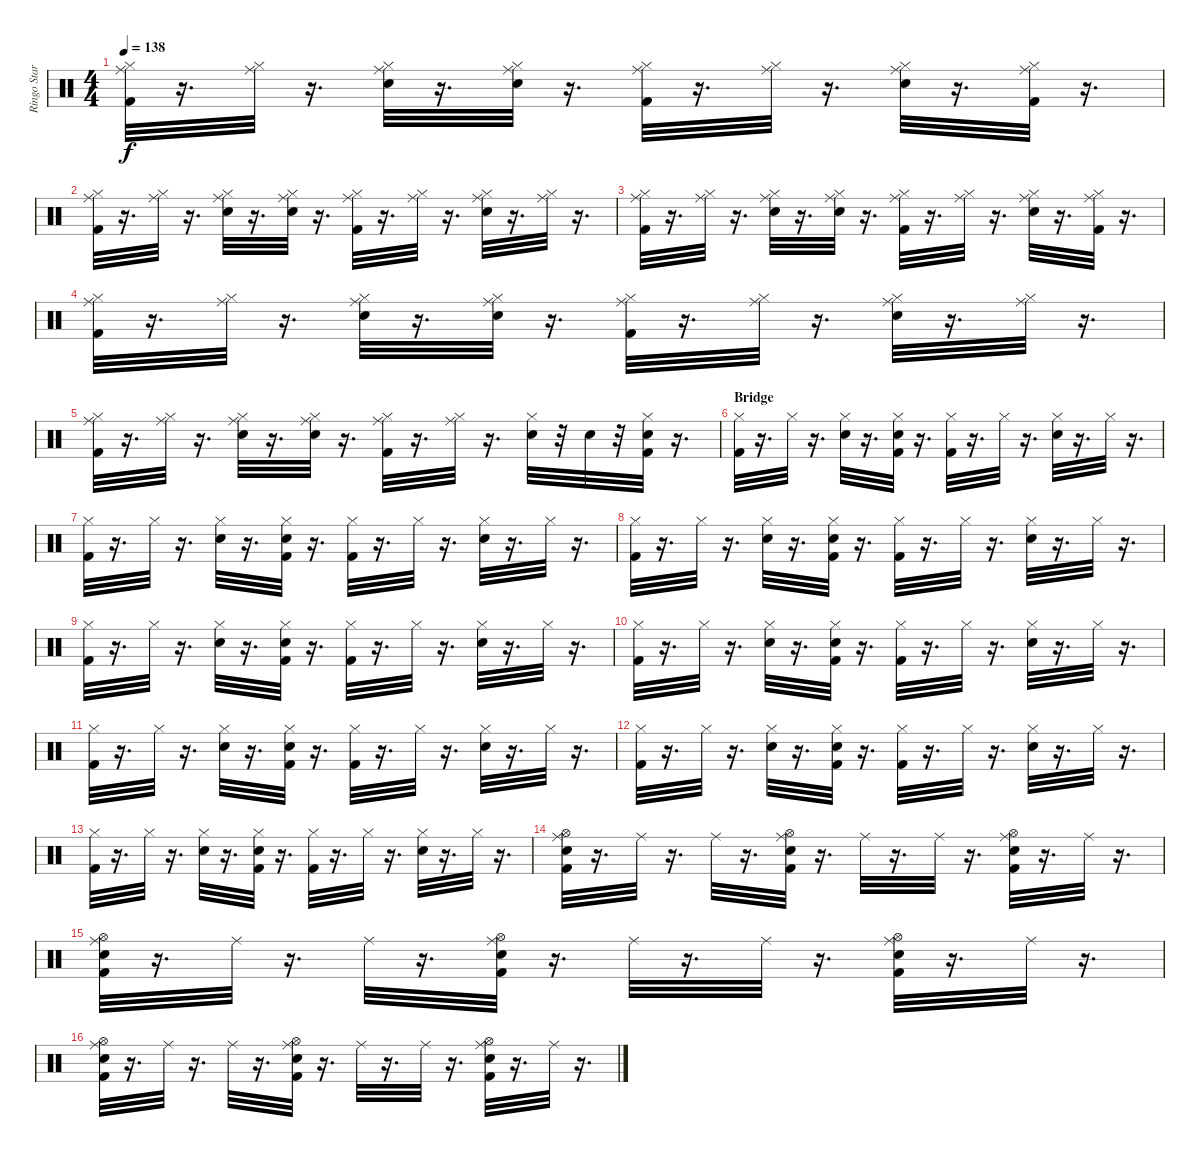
\track ("Ringo Starr" "Ringo Star") {instrument percussion}
\staff {score}
\articulation defaults
\ts (4 4)
\tempo 138
\clef neutral
\ks c
("Kick (hit) 2" "Ride (middle)" "Hi-Hat (closed)").32{dy f} r.16{d} ("Hi-Hat (closed)" "Ride (middle)").32 r.16{d} ("Snare (hit) 2" "Ride (middle)" "Hi-Hat (closed)").32 r.16{d} ("Snare (hit) 2" "Ride (middle)" "Hi-Hat (closed)").32 r.16{d} ("Kick (hit) 2" "Ride (middle)" "Hi-Hat (closed)").32 r.16{d} ("Hi-Hat (closed)" "Ride (middle)").32 r.16{d} ("Snare (hit) 2" "Ride (middle)" "Hi-Hat (closed)").32 r.16{d} ("Kick (hit) 2" "Ride (middle)" "Hi-Hat (closed)").32 r.16{d} |
("Kick (hit) 2" "Hi-Hat (closed)" "Ride (middle)").32 r.16{d} ("Hi-Hat (closed)" "Ride (middle)").32 r.16{d} ("Snare (hit) 2" "Ride (middle)" "Hi-Hat (closed)").32 r.16{d} ("Snare (hit) 2" "Ride (middle)" "Hi-Hat (closed)").32 r.16{d} ("Kick (hit) 2" "Ride (middle)" "Hi-Hat (closed)").32 r.16{d} ("Hi-Hat (closed)" "Ride (middle)").32 r.16{d} ("Snare (hit) 2" "Ride (middle)" "Hi-Hat (closed)").32 r.16{d} ("Hi-Hat (closed)" "Ride (middle)").32 r.16{d} |
("Kick (hit) 2" "Ride (middle)" "Hi-Hat (closed)").32 r.16{d} ("Hi-Hat (closed)" "Ride (middle)").32 r.16{d} ("Snare (hit) 2" "Ride (middle)" "Hi-Hat (closed)").32 r.16{d} ("Snare (hit) 2" "Ride (middle)" "Hi-Hat (closed)").32 r.16{d} ("Kick (hit) 2" "Ride (middle)" "Hi-Hat (closed)").32 r.16{d} ("Hi-Hat (closed)" "Ride (middle)").32 r.16{d} ("Snare (hit) 2" "Ride (middle)" "Hi-Hat (closed)").32 r.16{d} ("Kick (hit) 2" "Ride (middle)" "Hi-Hat (closed)").32 r.16{d} |
("Kick (hit) 2" "Hi-Hat (closed)" "Ride (middle)").32 r.16{d} ("Hi-Hat (closed)" "Ride (middle)").32 r.16{d} ("Snare (hit) 2" "Ride (middle)" "Hi-Hat (closed)").32 r.16{d} ("Snare (hit) 2" "Ride (middle)" "Hi-Hat (closed)").32 r.16{d} ("Kick (hit) 2" "Ride (middle)" "Hi-Hat (closed)").32 r.16{d} ("Hi-Hat (closed)" "Ride (middle)").32 r.16{d} ("Snare (hit) 2" "Ride (middle)" "Hi-Hat (closed)").32 r.16{d} ("Hi-Hat (closed)" "Ride (middle)").32 r.16{d} |
("Kick (hit) 2" "Ride (middle)" "Hi-Hat (closed)").32 r.16{d} ("Hi-Hat (closed)" "Ride (middle)").32 r.16{d} ("Snare (hit) 2" "Ride (middle)" "Hi-Hat (closed)").32 r.16{d} ("Snare (hit) 2" "Ride (middle)" "Hi-Hat (closed)").32 r.16{d} ("Kick (hit) 2" "Ride (middle)" "Hi-Hat (closed)").32 r.16{d} ("Hi-Hat (closed)" "Ride (middle)").32 r.16{d} ("Snare (hit) 2" "Hi-Hat (closed)").32 r.32 "Snare (hit) 2".32 r.32 ("Kick (hit) 2" "Snare (hit) 2" "Hi-Hat (closed)").32 r.16{d} |
\section ("" "Bridge")
("Kick (hit) 2" "Hi-Hat (closed)").32 r.16{d} "Hi-Hat (closed)".32 r.16{d} ("Snare (hit) 2" "Hi-Hat (closed)").32 r.16{d} ("Kick (hit) 2" "Snare (hit) 2" "Hi-Hat (closed)").32 r.16{d} ("Kick (hit) 2" "Hi-Hat (closed)").32 r.16{d} "Hi-Hat (closed)".32 r.16{d} ("Snare (hit) 2" "Hi-Hat (closed)").32 r.16{d} "Hi-Hat (closed)".32 r.16{d} |
("Kick (hit) 2" "Hi-Hat (closed)").32 r.16{d} "Hi-Hat (closed)".32 r.16{d} ("Snare (hit) 2" "Hi-Hat (closed)").32 r.16{d} ("Kick (hit) 2" "Snare (hit) 2" "Hi-Hat (closed)").32 r.16{d} ("Kick (hit) 2" "Hi-Hat (closed)").32 r.16{d} "Hi-Hat (closed)".32 r.16{d} ("Snare (hit) 2" "Hi-Hat (closed)").32 r.16{d} "Hi-Hat (closed)".32 r.16{d} |
("Kick (hit) 2" "Hi-Hat (closed)").32 r.16{d} "Hi-Hat (closed)".32 r.16{d} ("Snare (hit) 2" "Hi-Hat (closed)").32 r.16{d} ("Kick (hit) 2" "Snare (hit) 2" "Hi-Hat (closed)").32 r.16{d} ("Kick (hit) 2" "Hi-Hat (closed)").32 r.16{d} "Hi-Hat (closed)".32 r.16{d} ("Snare (hit) 2" "Hi-Hat (closed)").32 r.16{d} "Hi-Hat (closed)".32 r.16{d} |
("Kick (hit) 2" "Hi-Hat (closed)").32 r.16{d} "Hi-Hat (closed)".32 r.16{d} ("Snare (hit) 2" "Hi-Hat (closed)").32 r.16{d} ("Kick (hit) 2" "Snare (hit) 2" "Hi-Hat (closed)").32 r.16{d} ("Kick (hit) 2" "Hi-Hat (closed)").32 r.16{d} "Hi-Hat (closed)".32 r.16{d} ("Snare (hit) 2" "Hi-Hat (closed)").32 r.16{d} "Hi-Hat (closed)".32 r.16{d} |
("Kick (hit) 2" "Hi-Hat (closed)").32 r.16{d} "Hi-Hat (closed)".32 r.16{d} ("Snare (hit) 2" "Hi-Hat (closed)").32 r.16{d} ("Kick (hit) 2" "Snare (hit) 2" "Hi-Hat (closed)").32 r.16{d} ("Kick (hit) 2" "Hi-Hat (closed)").32 r.16{d} "Hi-Hat (closed)".32 r.16{d} ("Snare (hit) 2" "Hi-Hat (closed)").32 r.16{d} "Hi-Hat (closed)".32 r.16{d} |
("Kick (hit) 2" "Hi-Hat (closed)").32 r.16{d} "Hi-Hat (closed)".32 r.16{d} ("Snare (hit) 2" "Hi-Hat (closed)").32 r.16{d} ("Kick (hit) 2" "Snare (hit) 2" "Hi-Hat (closed)").32 r.16{d} ("Kick (hit) 2" "Hi-Hat (closed)").32 r.16{d} "Hi-Hat (closed)".32 r.16{d} ("Snare (hit) 2" "Hi-Hat (closed)").32 r.16{d} "Hi-Hat (closed)".32 r.16{d} |
("Kick (hit) 2" "Hi-Hat (closed)").32 r.16{d} "Hi-Hat (closed)".32 r.16{d} ("Snare (hit) 2" "Hi-Hat (closed)").32 r.16{d} ("Kick (hit) 2" "Snare (hit) 2" "Hi-Hat (closed)").32 r.16{d} ("Kick (hit) 2" "Hi-Hat (closed)").32 r.16{d} "Hi-Hat (closed)".32 r.16{d} ("Snare (hit) 2" "Hi-Hat (closed)").32 r.16{d} "Hi-Hat (closed)".32 r.16{d} |
("Kick (hit) 2" "Hi-Hat (closed)").32 r.16{d} "Hi-Hat (closed)".32 r.16{d} ("Snare (hit) 2" "Hi-Hat (closed)").32 r.16{d} ("Kick (hit) 2" "Snare (hit) 2" "Hi-Hat (closed)").32 r.16{d} ("Kick (hit) 2" "Hi-Hat (closed)").32 r.16{d} "Hi-Hat (closed)".32 r.16{d} ("Snare (hit) 2" "Hi-Hat (closed)").32 r.16{d} "Hi-Hat (closed)".32 r.16{d} |
("Kick (hit) 2" "Snare (hit) 2" "Hi-Hat (open)" "Ride (middle)").32 r.16{d} "Ride (middle)".32 r.16{d} "Ride (middle)".32 r.16{d} ("Kick (hit) 2" "Snare (hit) 2" "Hi-Hat (open)" "Ride (middle)").32 r.16{d} "Ride (middle)".32 r.16{d} "Ride (middle)".32 r.16{d} ("Kick (hit) 2" "Snare (hit) 2" "Hi-Hat (open)" "Ride (middle)").32 r.16{d} "Ride (middle)".32 r.16{d} |
("Kick (hit) 2" "Hi-Hat (open)" "Snare (hit) 2" "Ride (middle)").32 r.16{d} "Ride (middle)".32 r.16{d} "Ride (middle)".32 r.16{d} ("Kick (hit) 2" "Snare (hit) 2" "Hi-Hat (open)" "Ride (middle)").32 r.16{d} "Ride (middle)".32 r.16{d} "Ride (middle)".32 r.16{d} ("Kick (hit) 2" "Snare (hit) 2" "Hi-Hat (open)" "Ride (middle)").32 r.16{d} "Ride (middle)".32 r.16{d} |
("Kick (hit) 2" "Hi-Hat (open)" "Snare (hit) 2" "Ride (middle)").32 r.16{d} "Ride (middle)".32 r.16{d} "Ride (middle)".32 r.16{d} ("Kick (hit) 2" "Snare (hit) 2" "Hi-Hat (open)" "Ride (middle)").32 r.16{d} "Ride (middle)".32 r.16{d} "Ride (middle)".32 r.16{d} ("Kick (hit) 2" "Snare (hit) 2" "Hi-Hat (open)" "Ride (middle)").32 r.16{d} "Ride (middle)".32 r.16{d}
